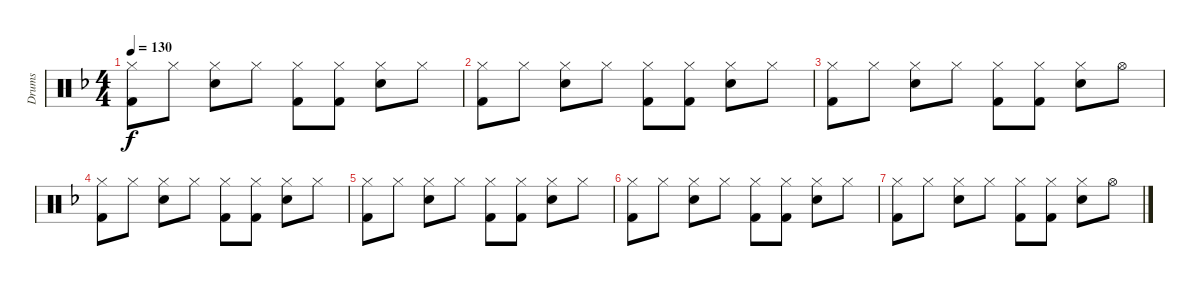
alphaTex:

\track ("Drums" "Drums") {instrument percussion}
\staff {score}
\articulation defaults
\ts (4 4)
\tempo 130
\clef neutral
\ks f
("Hi-Hat (closed)" "Kick (hit) 2").8{dy f} "Hi-Hat (closed)".8 ("Hi-Hat (closed)" "Snare (hit) 2").8 "Hi-Hat (closed)".8 ("Hi-Hat (closed)" "Kick (hit) 2").8 ("Hi-Hat (closed)" "Kick (hit) 2").8 ("Hi-Hat (closed)" "Snare (hit) 2").8 "Hi-Hat (closed)".8 |
("Hi-Hat (closed)" "Kick (hit) 2").8 "Hi-Hat (closed)".8 ("Hi-Hat (closed)" "Snare (hit) 2").8 "Hi-Hat (closed)".8 ("Hi-Hat (closed)" "Kick (hit) 2").8 ("Hi-Hat (closed)" "Kick (hit) 2").8 ("Hi-Hat (closed)" "Snare (hit) 2").8 "Hi-Hat (closed)".8 |
("Hi-Hat (closed)" "Kick (hit) 2").8 "Hi-Hat (closed)".8 ("Hi-Hat (closed)" "Snare (hit) 2").8 "Hi-Hat (closed)".8 ("Hi-Hat (closed)" "Kick (hit) 2").8 ("Hi-Hat (closed)" "Kick (hit) 2").8 ("Hi-Hat (closed)" "Snare (hit) 2").8 "Hi-Hat (open)".8 |
("Hi-Hat (closed)" "Kick (hit) 2").8 "Hi-Hat (closed)".8 ("Hi-Hat (closed)" "Snare (hit) 2").8 "Hi-Hat (closed)".8 ("Hi-Hat (closed)" "Kick (hit) 2").8 ("Hi-Hat (closed)" "Kick (hit) 2").8 ("Hi-Hat (closed)" "Snare (hit) 2").8 "Hi-Hat (closed)".8 |
("Hi-Hat (closed)" "Kick (hit) 2").8 "Hi-Hat (closed)".8 ("Hi-Hat (closed)" "Snare (hit) 2").8 "Hi-Hat (closed)".8 ("Hi-Hat (closed)" "Kick (hit) 2").8 ("Hi-Hat (closed)" "Kick (hit) 2").8 ("Hi-Hat (closed)" "Snare (hit) 2").8 "Hi-Hat (closed)".8 |
("Hi-Hat (closed)" "Kick (hit) 2").8 "Hi-Hat (closed)".8 ("Hi-Hat (closed)" "Snare (hit) 2").8 "Hi-Hat (closed)".8 ("Hi-Hat (closed)" "Kick (hit) 2").8 ("Hi-Hat (closed)" "Kick (hit) 2").8 ("Hi-Hat (closed)" "Snare (hit) 2").8 "Hi-Hat (closed)".8 |
("Hi-Hat (closed)" "Kick (hit) 2").8 "Hi-Hat (closed)".8 ("Hi-Hat (closed)" "Snare (hit) 2").8 "Hi-Hat (closed)".8 ("Hi-Hat (closed)" "Kick (hit) 2").8 ("Hi-Hat (closed)" "Kick (hit) 2").8 ("Hi-Hat (closed)" "Snare (hit) 2").8 "Hi-Hat (open)".8
